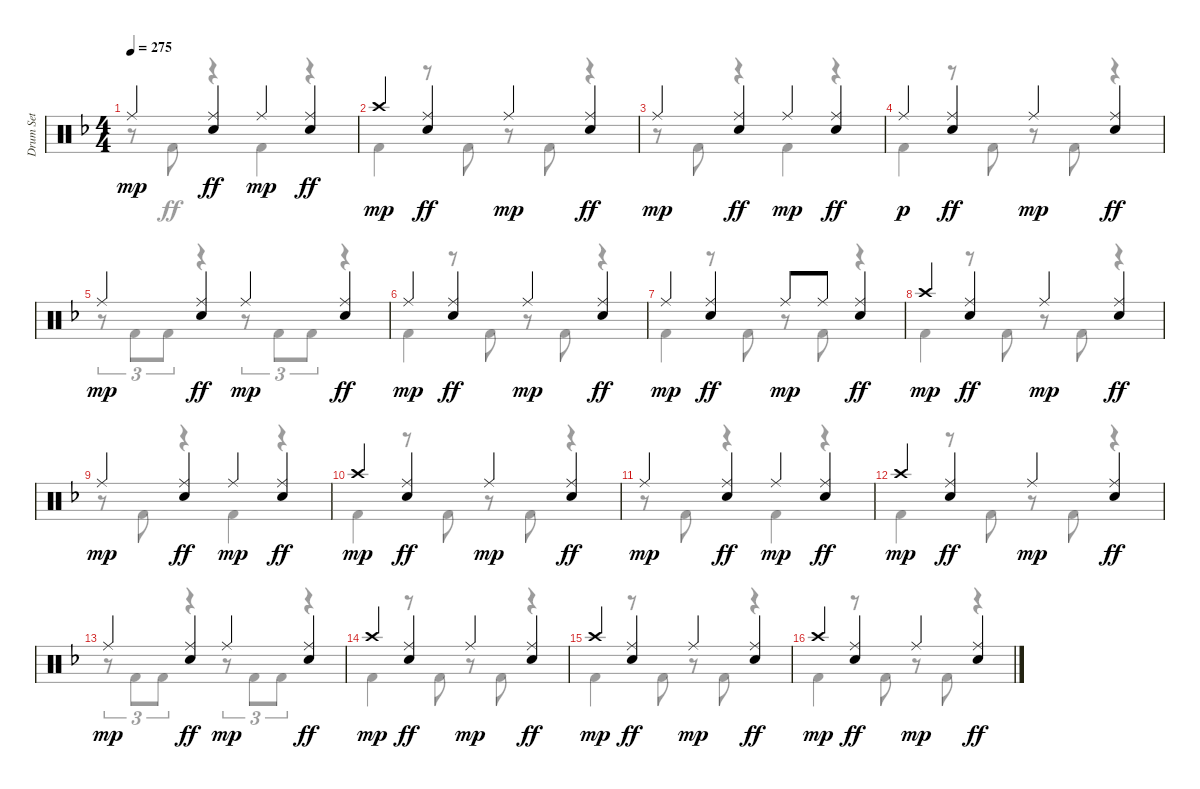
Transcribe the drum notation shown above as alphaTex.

\track ("Drum Set" "Drum Set") {instrument percussion}
\staff {score}
\articulation defaults
\voice
\ts (4 4)
\tempo 275
\clef neutral
\ks dminor "Ride (middle)".4{dy mp}
("Ride (middle)" "Electric Snare (hit)").4{dy ff} "Ride (middle)".4{dy mp} ("Ride (middle)" "Electric Snare (hit)").4{dy ff} |
"Crash high (hit)".4{dy mp} ("Ride (middle)" "Electric Snare (hit)").4{dy ff} "Ride (middle)".4{dy mp} ("Ride (middle)" "Electric Snare (hit)").4{dy ff} |
"Ride (middle)".4{dy mp} ("Ride (middle)" "Electric Snare (hit)").4{dy ff} "Ride (middle)".4{dy mp} ("Ride (middle)" "Electric Snare (hit)").4{dy ff} |
"Ride (middle)".4{dy p} ("Ride (middle)" "Electric Snare (hit)").4{dy ff} "Ride (middle)".4{dy mp} ("Ride (middle)" "Electric Snare (hit)").4{dy ff} |
"Ride (middle)".4{dy mp} ("Ride (middle)" "Electric Snare (hit)").4{dy ff} "Ride (middle)".4{dy mp} ("Ride (middle)" "Electric Snare (hit)").4{dy ff} |
"Ride (middle)".4{dy mp} ("Ride (middle)" "Electric Snare (hit)").4{dy ff} "Ride (middle)".4{dy mp} ("Ride (middle)" "Electric Snare (hit)").4{dy ff} |
"Ride (middle)".4{dy mp} ("Ride (middle)" "Electric Snare (hit)").4{dy ff} "Ride (middle)".8{dy mp} "Ride (middle)".8 ("Ride (middle)" "Electric Snare (hit)").4{dy ff} |
"Crash high (hit)".4{dy mp} ("Ride (middle)" "Electric Snare (hit)").4{dy ff} "Ride (middle)".4{dy mp} ("Ride (middle)" "Electric Snare (hit)").4{dy ff} |
"Ride (middle)".4{dy mp} ("Ride (middle)" "Electric Snare (hit)").4{dy ff} "Ride (middle)".4{dy mp} ("Ride (middle)" "Electric Snare (hit)").4{dy ff} |
"Crash high (hit)".4{dy mp} ("Ride (middle)" "Electric Snare (hit)").4{dy ff} "Ride (middle)".4{dy mp} ("Ride (middle)" "Electric Snare (hit)").4{dy ff} |
"Ride (middle)".4{dy mp} ("Ride (middle)" "Electric Snare (hit)").4{dy ff} "Ride (middle)".4{dy mp} ("Ride (middle)" "Electric Snare (hit)").4{dy ff} |
"Crash high (hit)".4{dy mp} ("Ride (middle)" "Electric Snare (hit)").4{dy ff} "Ride (middle)".4{dy mp} ("Ride (middle)" "Electric Snare (hit)").4{dy ff} |
"Ride (middle)".4{dy mp} ("Ride (middle)" "Electric Snare (hit)").4{dy ff} "Ride (middle)".4{dy mp} ("Ride (middle)" "Electric Snare (hit)").4{dy ff} |
"Crash high (hit)".4{dy mp} ("Ride (middle)" "Electric Snare (hit)").4{dy ff} "Ride (middle)".4{dy mp} ("Ride (middle)" "Electric Snare (hit)").4{dy ff} |
"Crash high (hit)".4{dy mp} ("Ride (middle)" "Electric Snare (hit)").4{dy ff} "Ride (middle)".4{dy mp} ("Ride (middle)" "Electric Snare (hit)").4{dy ff} |
"Crash high (hit)".4{dy mp} ("Ride (middle)" "Electric Snare (hit)").4{dy ff} "Ride (middle)".4{dy mp} ("Ride (middle)" "Electric Snare (hit)").4{dy ff}
\voice
\clef neutral
\ottava regular
\simile none
\ks dminor
r.8{dy ff} "Kick (hit) 2".8 r.4 "Kick (hit) 2".4 r.4 |
"Kick (hit) 2".4 r.8 "Kick (hit) 2".8 r.8 "Kick (hit) 2".8 r.4 |
r.8 "Kick (hit) 2".8 r.4 "Kick (hit) 2".4 r.4 |
"Kick (hit) 2".4 r.8 "Kick (hit) 2".8 r.8 "Kick (hit) 2".8 r.4 |
r.8{tu (3 2)} "Kick (hit) 2".8{tu (3 2)} "Kick (hit) 2".8{tu (3 2)} r.4 r.8{tu (3 2)} "Kick (hit) 2".8{tu (3 2)} "Kick (hit) 2".8{tu (3 2)} r.4 |
"Kick (hit) 2".4 r.8 "Kick (hit) 2".8 r.8 "Kick (hit) 2".8 r.4 |
"Kick (hit) 2".4 r.8 "Kick (hit) 2".8 r.8 "Kick (hit) 2".8 r.4 |
"Kick (hit) 2".4 r.8 "Kick (hit) 2".8 r.8 "Kick (hit) 2".8 r.4 |
r.8 "Kick (hit) 2".8 r.4 "Kick (hit) 2".4 r.4 |
"Kick (hit) 2".4 r.8 "Kick (hit) 2".8 r.8 "Kick (hit) 2".8 r.4 |
r.8 "Kick (hit) 2".8 r.4 "Kick (hit) 2".4 r.4 |
"Kick (hit) 2".4 r.8 "Kick (hit) 2".8 r.8 "Kick (hit) 2".8 r.4 |
r.8{tu (3 2)} "Kick (hit) 2".8{tu (3 2)} "Kick (hit) 2".8{tu (3 2)} r.4 r.8{tu (3 2)} "Kick (hit) 2".8{tu (3 2)} "Kick (hit) 2".8{tu (3 2)} r.4 |
"Kick (hit) 2".4 r.8 "Kick (hit) 2".8 r.8 "Kick (hit) 2".8 r.4 |
"Kick (hit) 2".4 r.8 "Kick (hit) 2".8 r.8 "Kick (hit) 2".8 r.4 |
"Kick (hit) 2".4 r.8 "Kick (hit) 2".8 r.8 "Kick (hit) 2".8 r.4
